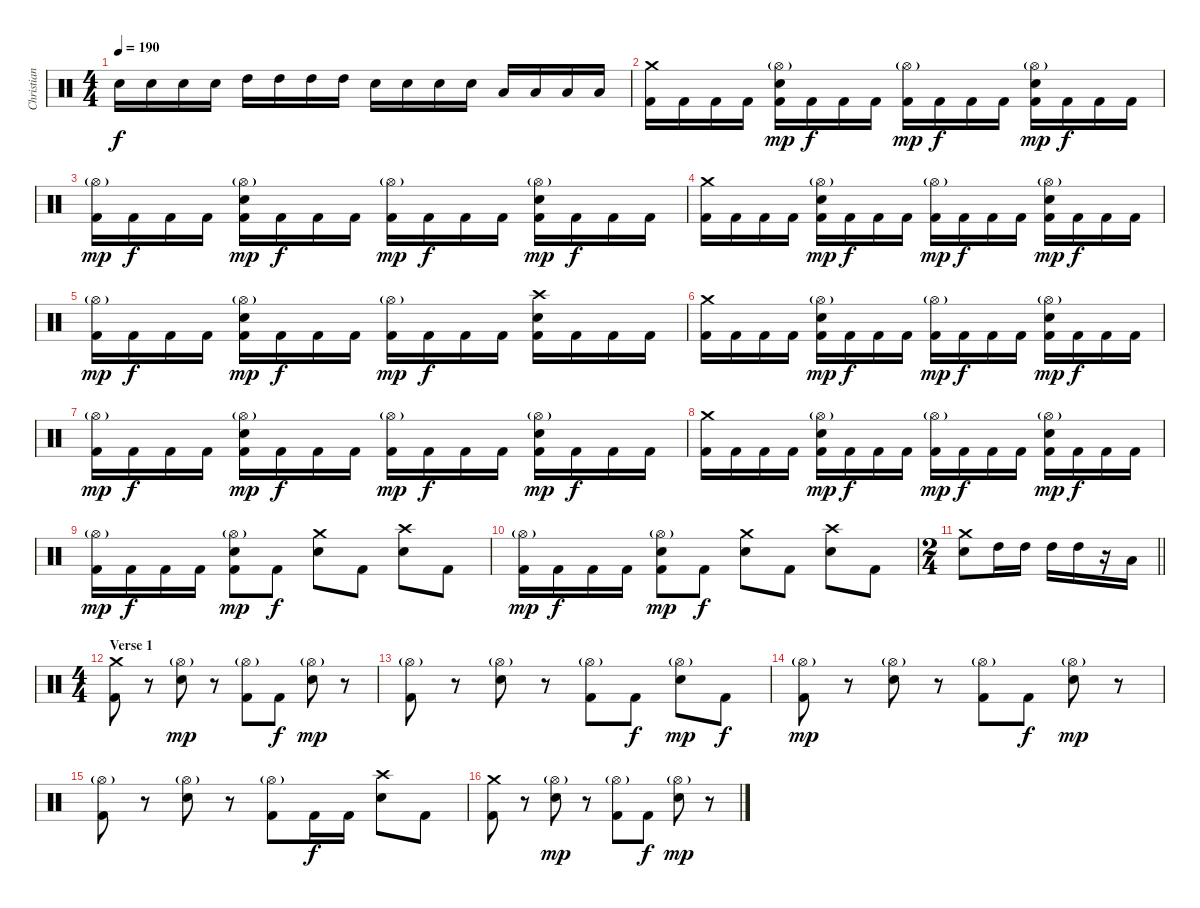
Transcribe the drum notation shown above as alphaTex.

\track ("Christian" "Christian") {instrument percussion}
\staff {score}
\articulation defaults
\ts (4 4)
\tempo 190
\clef neutral
\ks c "Electric Snare (hit)".16{dy f} "Electric Snare (hit)".16 "Electric Snare (hit)".16 "Electric Snare (hit)".16 "High Tom (hit)".16 "High Tom (hit)".16 "High Tom (hit)".16 "High Tom (hit)".16 "Electric Snare (hit)".16 "Electric Snare (hit)".16 "Electric Snare (hit)".16 "Electric Snare (hit)".16 "Low Tom (hit)".16 "Low Tom (hit)".16 "Low Tom (hit)".16 "Low Tom (hit)".16
|
("Crash medium (hit)" "Kick (hit) 2").16 "Kick (hit) 2".16 "Kick (hit) 2".16 "Kick (hit) 2".16 ("Hi-Hat (open)"{g} "Electric Snare (hit)" "Kick (hit) 2").16{dy mp} "Kick (hit) 2".16{dy f} "Kick (hit) 2".16 "Kick (hit) 2".16 ("Hi-Hat (open)"{g} "Kick (hit) 2").16{dy mp} "Kick (hit) 2".16{dy f} "Kick (hit) 2".16 "Kick (hit) 2".16 ("Hi-Hat (open)"{g} "Electric Snare (hit)" "Kick (hit) 2").16{dy mp} "Kick (hit) 2".16{dy f} "Kick (hit) 2".16 "Kick (hit) 2".16 |
("Hi-Hat (open)"{g} "Kick (hit) 2").16{dy mp} "Kick (hit) 2".16{dy f} "Kick (hit) 2".16 "Kick (hit) 2".16 ("Hi-Hat (open)"{g} "Electric Snare (hit)" "Kick (hit) 2").16{dy mp} "Kick (hit) 2".16{dy f} "Kick (hit) 2".16 "Kick (hit) 2".16 ("Hi-Hat (open)"{g} "Kick (hit) 2").16{dy mp} "Kick (hit) 2".16{dy f} "Kick (hit) 2".16 "Kick (hit) 2".16 ("Hi-Hat (open)"{g} "Electric Snare (hit)" "Kick (hit) 2").16{dy mp} "Kick (hit) 2".16{dy f} "Kick (hit) 2".16 "Kick (hit) 2".16 |
("Crash medium (hit)" "Kick (hit) 2").16 "Kick (hit) 2".16 "Kick (hit) 2".16 "Kick (hit) 2".16 ("Hi-Hat (open)"{g} "Electric Snare (hit)" "Kick (hit) 2").16{dy mp} "Kick (hit) 2".16{dy f} "Kick (hit) 2".16 "Kick (hit) 2".16 ("Hi-Hat (open)"{g} "Kick (hit) 2").16{dy mp} "Kick (hit) 2".16{dy f} "Kick (hit) 2".16 "Kick (hit) 2".16 ("Hi-Hat (open)"{g} "Electric Snare (hit)" "Kick (hit) 2").16{dy mp} "Kick (hit) 2".16{dy f} "Kick (hit) 2".16 "Kick (hit) 2".16 |
("Hi-Hat (open)"{g} "Kick (hit) 2").16{dy mp} "Kick (hit) 2".16{dy f} "Kick (hit) 2".16 "Kick (hit) 2".16 ("Hi-Hat (open)"{g} "Electric Snare (hit)" "Kick (hit) 2").16{dy mp} "Kick (hit) 2".16{dy f} "Kick (hit) 2".16 "Kick (hit) 2".16 ("Hi-Hat (open)"{g} "Kick (hit) 2").16{dy mp} "Kick (hit) 2".16{dy f} "Kick (hit) 2".16 "Kick (hit) 2".16 ("Crash high (hit)" "Electric Snare (hit)" "Kick (hit) 2").16 "Kick (hit) 2".16 "Kick (hit) 2".16 "Kick (hit) 2".16 |
("Crash medium (hit)" "Kick (hit) 2").16 "Kick (hit) 2".16 "Kick (hit) 2".16 "Kick (hit) 2".16 ("Hi-Hat (open)"{g} "Electric Snare (hit)" "Kick (hit) 2").16{dy mp} "Kick (hit) 2".16{dy f} "Kick (hit) 2".16 "Kick (hit) 2".16 ("Hi-Hat (open)"{g} "Kick (hit) 2").16{dy mp} "Kick (hit) 2".16{dy f} "Kick (hit) 2".16 "Kick (hit) 2".16 ("Hi-Hat (open)"{g} "Electric Snare (hit)" "Kick (hit) 2").16{dy mp} "Kick (hit) 2".16{dy f} "Kick (hit) 2".16 "Kick (hit) 2".16 |
("Hi-Hat (open)"{g} "Kick (hit) 2").16{dy mp} "Kick (hit) 2".16{dy f} "Kick (hit) 2".16 "Kick (hit) 2".16 ("Hi-Hat (open)"{g} "Electric Snare (hit)" "Kick (hit) 2").16{dy mp} "Kick (hit) 2".16{dy f} "Kick (hit) 2".16 "Kick (hit) 2".16 ("Hi-Hat (open)"{g} "Kick (hit) 2").16{dy mp} "Kick (hit) 2".16{dy f} "Kick (hit) 2".16 "Kick (hit) 2".16 ("Hi-Hat (open)"{g} "Electric Snare (hit)" "Kick (hit) 2").16{dy mp} "Kick (hit) 2".16{dy f} "Kick (hit) 2".16 "Kick (hit) 2".16 |
("Crash medium (hit)" "Kick (hit) 2").16 "Kick (hit) 2".16 "Kick (hit) 2".16 "Kick (hit) 2".16 ("Hi-Hat (open)"{g} "Electric Snare (hit)" "Kick (hit) 2").16{dy mp} "Kick (hit) 2".16{dy f} "Kick (hit) 2".16 "Kick (hit) 2".16 ("Hi-Hat (open)"{g} "Kick (hit) 2").16{dy mp} "Kick (hit) 2".16{dy f} "Kick (hit) 2".16 "Kick (hit) 2".16 ("Hi-Hat (open)"{g} "Electric Snare (hit)" "Kick (hit) 2").16{dy mp} "Kick (hit) 2".16{dy f} "Kick (hit) 2".16 "Kick (hit) 2".16 |
("Hi-Hat (open)"{g} "Kick (hit) 2").16{dy mp} "Kick (hit) 2".16{dy f} "Kick (hit) 2".16 "Kick (hit) 2".16 ("Hi-Hat (open)"{g} "Electric Snare (hit)" "Kick (hit) 2").8{dy mp} "Kick (hit) 2".8{dy f} ("Crash medium (hit)" "Electric Snare (hit)").8 "Kick (hit) 2".8 ("Crash high (hit)" "Electric Snare (hit)").8 "Kick (hit) 2".8 |
("Hi-Hat (open)"{g} "Kick (hit) 2").16{dy mp} "Kick (hit) 2".16{dy f} "Kick (hit) 2".16 "Kick (hit) 2".16 ("Hi-Hat (open)"{g} "Electric Snare (hit)" "Kick (hit) 2").8{dy mp} "Kick (hit) 2".8{dy f} ("Crash medium (hit)" "Electric Snare (hit)").8 "Kick (hit) 2".8 ("Crash high (hit)" "Electric Snare (hit)").8 "Kick (hit) 2".8 |
\ts (2 4)
\barLineRight lightlight
("Crash medium (hit)" "Electric Snare (hit)").8 "High Tom (hit)".16 "High Tom (hit)".16 "High Tom (hit)".16 "High Tom (hit)".16 r.16 "Low Tom (hit)".16 |
\ts (4 4)
\section ("" "Verse 1")
("Crash medium (hit)" "Kick (hit) 2").8 r.8 ("Hi-Hat (open)"{g} "Electric Snare (hit)").8{dy mp} r.8 ("Hi-Hat (open)"{g} "Kick (hit) 2").8 "Kick (hit) 2".8{dy f} ("Hi-Hat (open)"{g} "Electric Snare (hit)").8{dy mp} r.8 |
("Hi-Hat (open)"{g} "Kick (hit) 2").8 r.8 ("Hi-Hat (open)"{g} "Electric Snare (hit)").8 r.8 ("Hi-Hat (open)"{g} "Kick (hit) 2").8 "Kick (hit) 2".8{dy f} ("Hi-Hat (open)"{g} "Electric Snare (hit)").8{dy mp} "Kick (hit) 2".8{dy f} |
("Hi-Hat (open)"{g} "Kick (hit) 2").8{dy mp} r.8 ("Hi-Hat (open)"{g} "Electric Snare (hit)").8 r.8 ("Hi-Hat (open)"{g} "Kick (hit) 2").8 "Kick (hit) 2".8{dy f} ("Hi-Hat (open)"{g} "Electric Snare (hit)").8{dy mp} r.8 |
("Hi-Hat (open)"{g} "Kick (hit) 2").8 r.8 ("Hi-Hat (open)"{g} "Electric Snare (hit)").8 r.8 ("Hi-Hat (open)"{g} "Kick (hit) 2").8 "Kick (hit) 2".16{dy f} "Kick (hit) 2".16 ("Crash high (hit)" "Electric Snare (hit)").8 "Kick (hit) 2".8 |
("Crash medium (hit)" "Kick (hit) 2").8 r.8 ("Hi-Hat (open)"{g} "Electric Snare (hit)").8{dy mp} r.8 ("Hi-Hat (open)"{g} "Kick (hit) 2").8 "Kick (hit) 2".8{dy f} ("Hi-Hat (open)"{g} "Electric Snare (hit)").8{dy mp} r.8
